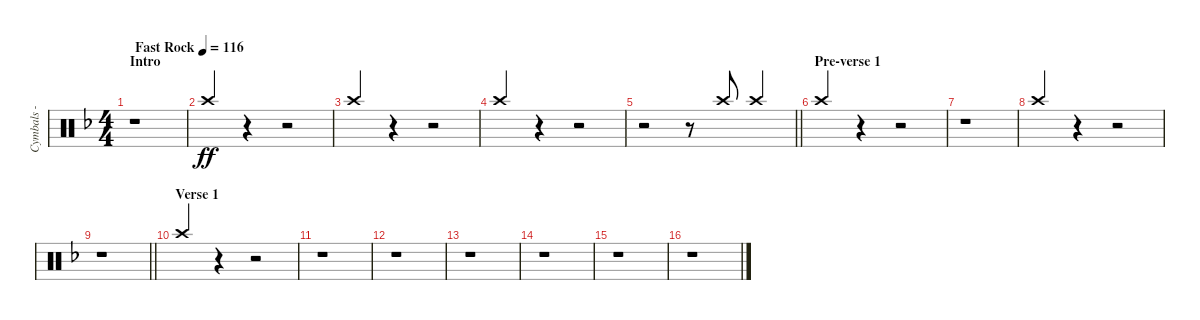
\track ("Cymbals - crash" "Cymbals - ") {instrument percussion}
\staff {score}
\articulation defaults
\ts (4 4)
\section ("" "Intro")
\tempo (116 "Fast Rock")
\clef neutral
\ks dminor
r.1{dy ff volume 4} |
\ks f "Crash high (hit)".4{beam Up}
r.4 r.2 |
"Crash high (hit)".4{beam Up} r.4 r.2 |
"Crash high (hit)".4{beam Up} r.4 r.2 |
\barLineRight lightlight
r.2 r.8 "Crash high (hit)".8{beam Up} "Crash high (hit)".4{beam Up} |
\section ("" "Pre-verse 1")
"Crash high (hit)".4{beam Up} r.4 r.2 |
r.1 |
"Crash high (hit)".4{beam Up} r.4 r.2 |
\barLineRight lightlight
r.1 |
\section ("" "Verse 1")
"Crash high (hit)".4{beam Up} r.4 r.2 |
r.1 |
r.1 |
r.1 |
r.1 |
r.1 |
r.1
